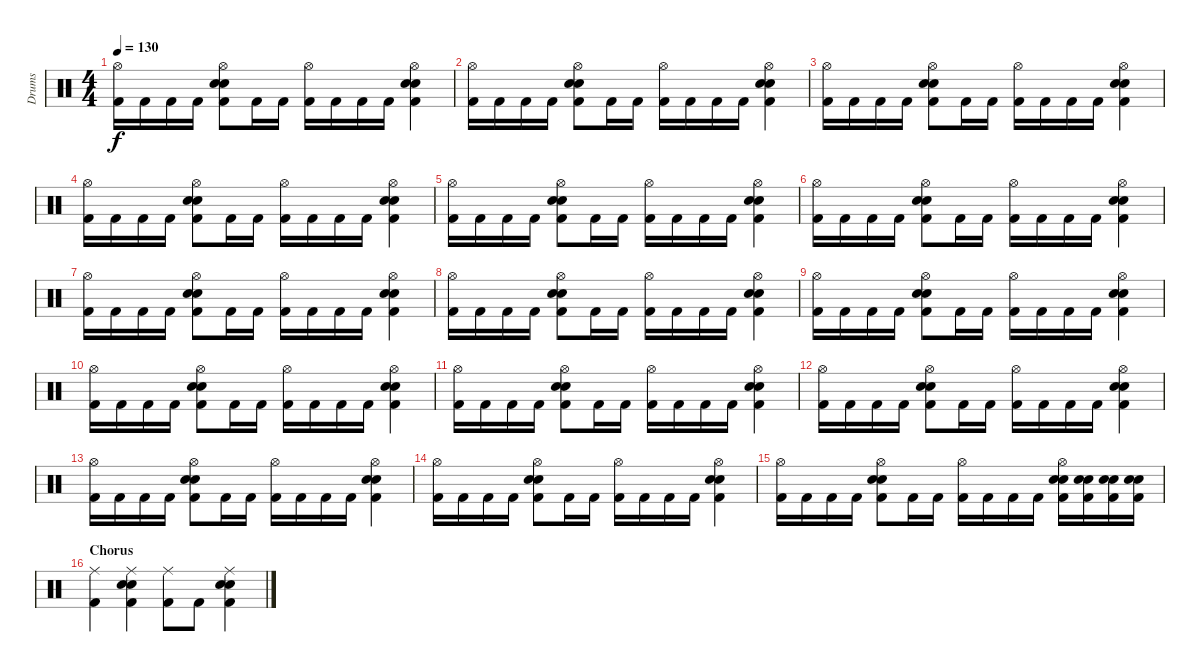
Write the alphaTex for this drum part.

\track ("Drums" "Drums") {instrument percussion}
\staff {score}
\articulation defaults
\ts (4 4)
\tempo 130
\clef neutral
\ks c
("Hi-Hat (open)" "Kick (hit) 2").16{dy f} "Kick (hit) 2".16 "Kick (hit) 2".16 "Kick (hit) 2".16 ("Hi-Hat (open)" "Snare (hit) 2" "Electric Snare (hit)" "Kick (hit) 2").8 "Kick (hit) 2".16 "Kick (hit) 2".16 ("Hi-Hat (open)" "Kick (hit) 2").16 "Kick (hit) 2".16 "Kick (hit) 2".16 "Kick (hit) 2".16 ("Hi-Hat (open)" "Snare (hit) 2" "Electric Snare (hit)" "Kick (hit) 2").4 |
("Hi-Hat (open)" "Kick (hit) 2").16 "Kick (hit) 2".16 "Kick (hit) 2".16 "Kick (hit) 2".16 ("Hi-Hat (open)" "Snare (hit) 2" "Electric Snare (hit)" "Kick (hit) 2").8 "Kick (hit) 2".16 "Kick (hit) 2".16 ("Hi-Hat (open)" "Kick (hit) 2").16 "Kick (hit) 2".16 "Kick (hit) 2".16 "Kick (hit) 2".16 ("Hi-Hat (open)" "Snare (hit) 2" "Electric Snare (hit)" "Kick (hit) 2").4 |
("Hi-Hat (open)" "Kick (hit) 2").16 "Kick (hit) 2".16 "Kick (hit) 2".16 "Kick (hit) 2".16 ("Hi-Hat (open)" "Snare (hit) 2" "Electric Snare (hit)" "Kick (hit) 2").8 "Kick (hit) 2".16 "Kick (hit) 2".16 ("Hi-Hat (open)" "Kick (hit) 2").16 "Kick (hit) 2".16 "Kick (hit) 2".16 "Kick (hit) 2".16 ("Hi-Hat (open)" "Snare (hit) 2" "Electric Snare (hit)" "Kick (hit) 2").4 |
("Hi-Hat (open)" "Kick (hit) 2").16 "Kick (hit) 2".16 "Kick (hit) 2".16 "Kick (hit) 2".16 ("Hi-Hat (open)" "Snare (hit) 2" "Electric Snare (hit)" "Kick (hit) 2").8 "Kick (hit) 2".16 "Kick (hit) 2".16 ("Hi-Hat (open)" "Kick (hit) 2").16 "Kick (hit) 2".16 "Kick (hit) 2".16 "Kick (hit) 2".16 ("Hi-Hat (open)" "Snare (hit) 2" "Electric Snare (hit)" "Kick (hit) 2").4 |
("Hi-Hat (open)" "Kick (hit) 2").16 "Kick (hit) 2".16 "Kick (hit) 2".16 "Kick (hit) 2".16 ("Hi-Hat (open)" "Snare (hit) 2" "Electric Snare (hit)" "Kick (hit) 2").8 "Kick (hit) 2".16 "Kick (hit) 2".16 ("Hi-Hat (open)" "Kick (hit) 2").16 "Kick (hit) 2".16 "Kick (hit) 2".16 "Kick (hit) 2".16 ("Hi-Hat (open)" "Snare (hit) 2" "Electric Snare (hit)" "Kick (hit) 2").4 |
("Hi-Hat (open)" "Kick (hit) 2").16 "Kick (hit) 2".16 "Kick (hit) 2".16 "Kick (hit) 2".16 ("Hi-Hat (open)" "Snare (hit) 2" "Electric Snare (hit)" "Kick (hit) 2").8 "Kick (hit) 2".16 "Kick (hit) 2".16 ("Hi-Hat (open)" "Kick (hit) 2").16 "Kick (hit) 2".16 "Kick (hit) 2".16 "Kick (hit) 2".16 ("Hi-Hat (open)" "Snare (hit) 2" "Electric Snare (hit)" "Kick (hit) 2").4 |
("Hi-Hat (open)" "Kick (hit) 2").16 "Kick (hit) 2".16 "Kick (hit) 2".16 "Kick (hit) 2".16 ("Hi-Hat (open)" "Snare (hit) 2" "Electric Snare (hit)" "Kick (hit) 2").8 "Kick (hit) 2".16 "Kick (hit) 2".16 ("Hi-Hat (open)" "Kick (hit) 2").16 "Kick (hit) 2".16 "Kick (hit) 2".16 "Kick (hit) 2".16 ("Hi-Hat (open)" "Snare (hit) 2" "Electric Snare (hit)" "Kick (hit) 2").4 |
("Hi-Hat (open)" "Kick (hit) 2").16 "Kick (hit) 2".16 "Kick (hit) 2".16 "Kick (hit) 2".16 ("Hi-Hat (open)" "Snare (hit) 2" "Electric Snare (hit)" "Kick (hit) 2").8 "Kick (hit) 2".16 "Kick (hit) 2".16 ("Hi-Hat (open)" "Kick (hit) 2").16 "Kick (hit) 2".16 "Kick (hit) 2".16 "Kick (hit) 2".16 ("Hi-Hat (open)" "Snare (hit) 2" "Electric Snare (hit)" "Kick (hit) 2").4 |
("Hi-Hat (open)" "Kick (hit) 2").16 "Kick (hit) 2".16 "Kick (hit) 2".16 "Kick (hit) 2".16 ("Hi-Hat (open)" "Snare (hit) 2" "Electric Snare (hit)" "Kick (hit) 2").8 "Kick (hit) 2".16 "Kick (hit) 2".16 ("Hi-Hat (open)" "Kick (hit) 2").16 "Kick (hit) 2".16 "Kick (hit) 2".16 "Kick (hit) 2".16 ("Hi-Hat (open)" "Snare (hit) 2" "Electric Snare (hit)" "Kick (hit) 2").4 |
("Hi-Hat (open)" "Kick (hit) 2").16 "Kick (hit) 2".16 "Kick (hit) 2".16 "Kick (hit) 2".16 ("Hi-Hat (open)" "Snare (hit) 2" "Electric Snare (hit)" "Kick (hit) 2").8 "Kick (hit) 2".16 "Kick (hit) 2".16 ("Hi-Hat (open)" "Kick (hit) 2").16 "Kick (hit) 2".16 "Kick (hit) 2".16 "Kick (hit) 2".16 ("Hi-Hat (open)" "Snare (hit) 2" "Electric Snare (hit)" "Kick (hit) 2").4 |
("Hi-Hat (open)" "Kick (hit) 2").16 "Kick (hit) 2".16 "Kick (hit) 2".16 "Kick (hit) 2".16 ("Hi-Hat (open)" "Snare (hit) 2" "Electric Snare (hit)" "Kick (hit) 2").8 "Kick (hit) 2".16 "Kick (hit) 2".16 ("Hi-Hat (open)" "Kick (hit) 2").16 "Kick (hit) 2".16 "Kick (hit) 2".16 "Kick (hit) 2".16 ("Hi-Hat (open)" "Snare (hit) 2" "Electric Snare (hit)" "Kick (hit) 2").4 |
("Hi-Hat (open)" "Kick (hit) 2").16 "Kick (hit) 2".16 "Kick (hit) 2".16 "Kick (hit) 2".16 ("Hi-Hat (open)" "Snare (hit) 2" "Electric Snare (hit)" "Kick (hit) 2").8 "Kick (hit) 2".16 "Kick (hit) 2".16 ("Hi-Hat (open)" "Kick (hit) 2").16 "Kick (hit) 2".16 "Kick (hit) 2".16 "Kick (hit) 2".16 ("Hi-Hat (open)" "Snare (hit) 2" "Electric Snare (hit)" "Kick (hit) 2").4 |
("Hi-Hat (open)" "Kick (hit) 2").16 "Kick (hit) 2".16 "Kick (hit) 2".16 "Kick (hit) 2".16 ("Hi-Hat (open)" "Snare (hit) 2" "Electric Snare (hit)" "Kick (hit) 2").8 "Kick (hit) 2".16 "Kick (hit) 2".16 ("Hi-Hat (open)" "Kick (hit) 2").16 "Kick (hit) 2".16 "Kick (hit) 2".16 "Kick (hit) 2".16 ("Hi-Hat (open)" "Snare (hit) 2" "Electric Snare (hit)" "Kick (hit) 2").4 |
("Hi-Hat (open)" "Kick (hit) 2").16 "Kick (hit) 2".16 "Kick (hit) 2".16 "Kick (hit) 2".16 ("Hi-Hat (open)" "Snare (hit) 2" "Electric Snare (hit)" "Kick (hit) 2").8 "Kick (hit) 2".16 "Kick (hit) 2".16 ("Hi-Hat (open)" "Kick (hit) 2").16 "Kick (hit) 2".16 "Kick (hit) 2".16 "Kick (hit) 2".16 ("Hi-Hat (open)" "Snare (hit) 2" "Electric Snare (hit)" "Kick (hit) 2").4 |
("Hi-Hat (open)" "Kick (hit) 2").16 "Kick (hit) 2".16 "Kick (hit) 2".16 "Kick (hit) 2".16 ("Hi-Hat (open)" "Snare (hit) 2" "Electric Snare (hit)" "Kick (hit) 2").8 "Kick (hit) 2".16 "Kick (hit) 2".16 ("Hi-Hat (open)" "Kick (hit) 2").16 "Kick (hit) 2".16 "Kick (hit) 2".16 "Kick (hit) 2".16 ("Hi-Hat (open)" "Snare (hit) 2" "Electric Snare (hit)" "Kick (hit) 2").16 ("Snare (hit) 2" "Electric Snare (hit)" "Kick (hit) 2").16 ("Snare (hit) 2" "Electric Snare (hit)" "Kick (hit) 2").16 ("Snare (hit) 2" "Electric Snare (hit)" "Kick (hit) 2").16 |
\section ("" "Chorus")
("Ride (middle)" "Kick (hit) 2").4 ("Ride (middle)" "Snare (hit) 2" "Electric Snare (hit)" "Kick (hit) 2").4 ("Ride (middle)" "Kick (hit) 2").8 "Kick (hit) 2".8 ("Ride (middle)" "Snare (hit) 2" "Electric Snare (hit)" "Kick (hit) 2").4
